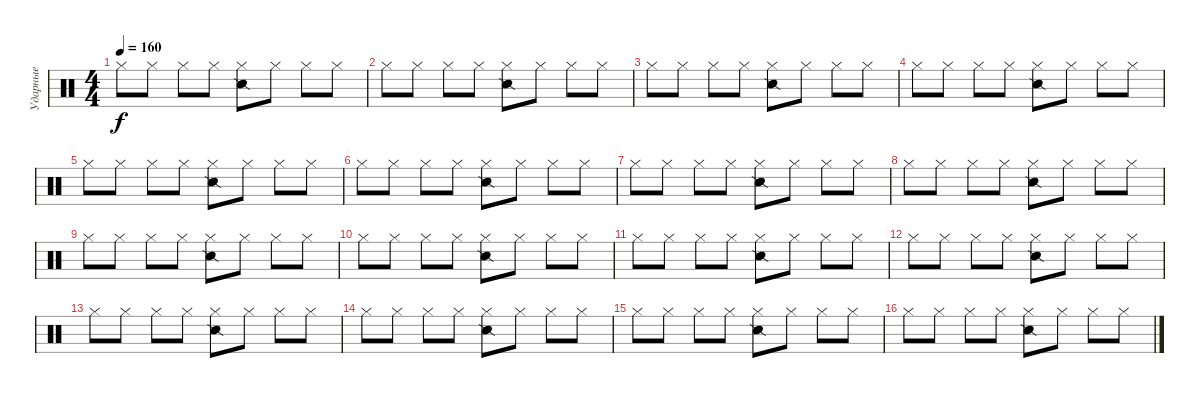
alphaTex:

\track ("Ударные" "Ударные") {instrument percussion}
\staff {score}
\articulation defaults
\ts (4 4)
\tempo 160
\clef neutral
\ks c "Hi-Hat (closed)".8{dy f} "Hi-Hat (closed)".8 "Hi-Hat (closed)".8 "Hi-Hat (closed)".8
("Snare (side stick) 2" "Hi-Hat (closed)").8 "Hi-Hat (closed)".8 "Hi-Hat (closed)".8 "Hi-Hat (closed)".8 |
"Hi-Hat (closed)".8 "Hi-Hat (closed)".8 "Hi-Hat (closed)".8 "Hi-Hat (closed)".8 ("Snare (side stick) 2" "Hi-Hat (closed)").8 "Hi-Hat (closed)".8 "Hi-Hat (closed)".8 "Hi-Hat (closed)".8 |
"Hi-Hat (closed)".8 "Hi-Hat (closed)".8 "Hi-Hat (closed)".8 "Hi-Hat (closed)".8 ("Snare (side stick) 2" "Hi-Hat (closed)").8 "Hi-Hat (closed)".8 "Hi-Hat (closed)".8 "Hi-Hat (closed)".8 |
"Hi-Hat (closed)".8 "Hi-Hat (closed)".8 "Hi-Hat (closed)".8 "Hi-Hat (closed)".8 ("Snare (side stick) 2" "Hi-Hat (closed)").8 "Hi-Hat (closed)".8 "Hi-Hat (closed)".8 "Hi-Hat (closed)".8 |
"Hi-Hat (closed)".8 "Hi-Hat (closed)".8 "Hi-Hat (closed)".8 "Hi-Hat (closed)".8 ("Snare (side stick) 2" "Hi-Hat (closed)").8 "Hi-Hat (closed)".8 "Hi-Hat (closed)".8 "Hi-Hat (closed)".8 |
"Hi-Hat (closed)".8 "Hi-Hat (closed)".8 "Hi-Hat (closed)".8 "Hi-Hat (closed)".8 ("Snare (side stick) 2" "Hi-Hat (closed)").8 "Hi-Hat (closed)".8 "Hi-Hat (closed)".8 "Hi-Hat (closed)".8 |
"Hi-Hat (closed)".8 "Hi-Hat (closed)".8 "Hi-Hat (closed)".8 "Hi-Hat (closed)".8 ("Snare (side stick) 2" "Hi-Hat (closed)").8 "Hi-Hat (closed)".8 "Hi-Hat (closed)".8 "Hi-Hat (closed)".8 |
"Hi-Hat (closed)".8 "Hi-Hat (closed)".8 "Hi-Hat (closed)".8 "Hi-Hat (closed)".8 ("Snare (side stick) 2" "Hi-Hat (closed)").8 "Hi-Hat (closed)".8 "Hi-Hat (closed)".8 "Hi-Hat (closed)".8 |
"Hi-Hat (closed)".8 "Hi-Hat (closed)".8 "Hi-Hat (closed)".8 "Hi-Hat (closed)".8 ("Snare (side stick) 2" "Hi-Hat (closed)").8 "Hi-Hat (closed)".8 "Hi-Hat (closed)".8 "Hi-Hat (closed)".8 |
"Hi-Hat (closed)".8 "Hi-Hat (closed)".8 "Hi-Hat (closed)".8 "Hi-Hat (closed)".8 ("Snare (side stick) 2" "Hi-Hat (closed)").8 "Hi-Hat (closed)".8 "Hi-Hat (closed)".8 "Hi-Hat (closed)".8 |
"Hi-Hat (closed)".8 "Hi-Hat (closed)".8 "Hi-Hat (closed)".8 "Hi-Hat (closed)".8 ("Snare (side stick) 2" "Hi-Hat (closed)").8 "Hi-Hat (closed)".8 "Hi-Hat (closed)".8 "Hi-Hat (closed)".8 |
"Hi-Hat (closed)".8 "Hi-Hat (closed)".8 "Hi-Hat (closed)".8 "Hi-Hat (closed)".8 ("Snare (side stick) 2" "Hi-Hat (closed)").8 "Hi-Hat (closed)".8 "Hi-Hat (closed)".8 "Hi-Hat (closed)".8 |
"Hi-Hat (closed)".8 "Hi-Hat (closed)".8 "Hi-Hat (closed)".8 "Hi-Hat (closed)".8 ("Snare (side stick) 2" "Hi-Hat (closed)").8 "Hi-Hat (closed)".8 "Hi-Hat (closed)".8 "Hi-Hat (closed)".8 |
"Hi-Hat (closed)".8 "Hi-Hat (closed)".8 "Hi-Hat (closed)".8 "Hi-Hat (closed)".8 ("Snare (side stick) 2" "Hi-Hat (closed)").8 "Hi-Hat (closed)".8 "Hi-Hat (closed)".8 "Hi-Hat (closed)".8 |
"Hi-Hat (closed)".8 "Hi-Hat (closed)".8 "Hi-Hat (closed)".8 "Hi-Hat (closed)".8 ("Snare (side stick) 2" "Hi-Hat (closed)").8 "Hi-Hat (closed)".8 "Hi-Hat (closed)".8 "Hi-Hat (closed)".8 |
"Hi-Hat (closed)".8 "Hi-Hat (closed)".8 "Hi-Hat (closed)".8 "Hi-Hat (closed)".8 ("Snare (side stick) 2" "Hi-Hat (closed)").8 "Hi-Hat (closed)".8 "Hi-Hat (closed)".8 "Hi-Hat (closed)".8
